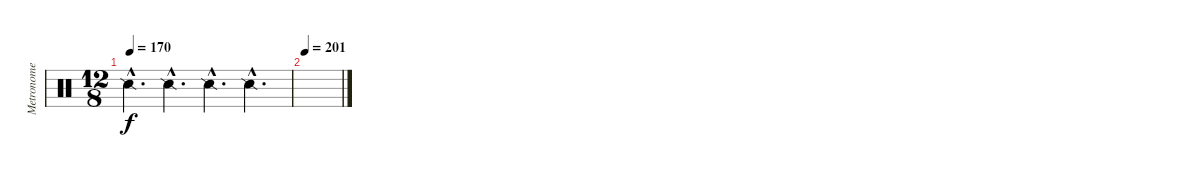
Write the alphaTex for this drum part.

\track ("Metronome 4/4" "Metronome ") {instrument percussion}
\staff {score}
\articulation defaults
\ts (12 8)
\tempo 170
\clef neutral
\ks c "Snare (side stick) 2"{hac}.4{d dy f} "Snare (side stick) 2"{hac}.4{d} "Snare (side stick) 2"{hac}.4{d} "Snare (side stick) 2"{hac}.4{d}
|
\tempo 201
